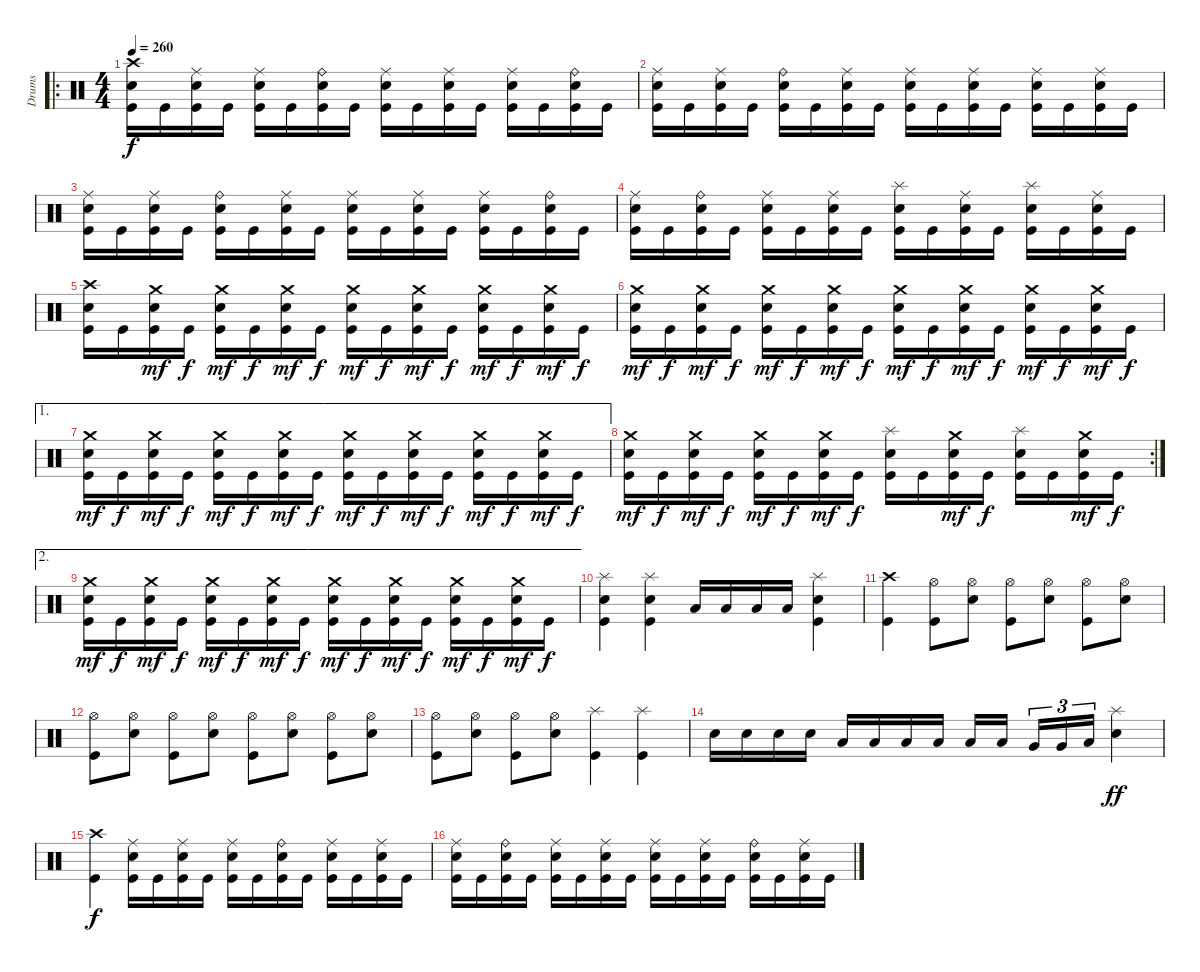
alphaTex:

\track ("Drums" "Drums") {instrument percussion}
\staff {score}
\articulation defaults
\ro
\ts (4 4)
\tempo 260
\clef neutral
\ks c
("Crash high (hit)" "Electric Snare (hit)" "Kick (hit)").16{dy f} "Kick (hit)".16 ("Ride (middle)" "Electric Snare (hit)" "Kick (hit)").16 "Kick (hit)".16 ("Ride (middle)" "Electric Snare (hit)" "Kick (hit)").16 "Kick (hit)".16 ("Ride (bell)" "Electric Snare (hit)" "Kick (hit)").16 "Kick (hit)".16 ("Ride (middle)" "Electric Snare (hit)" "Kick (hit)").16 "Kick (hit)".16 ("Ride (middle)" "Electric Snare (hit)" "Kick (hit)").16 "Kick (hit)".16 ("Ride (middle)" "Electric Snare (hit)" "Kick (hit)").16 "Kick (hit)".16 ("Ride (bell)" "Electric Snare (hit)" "Kick (hit)").16 "Kick (hit)".16 |
("Ride (middle)" "Electric Snare (hit)" "Kick (hit)").16 "Kick (hit)".16 ("Ride (middle)" "Electric Snare (hit)" "Kick (hit)").16 "Kick (hit)".16 ("Ride (bell)" "Electric Snare (hit)" "Kick (hit)").16 "Kick (hit)".16 ("Ride (middle)" "Electric Snare (hit)" "Kick (hit)").16 "Kick (hit)".16 ("Ride (middle)" "Electric Snare (hit)" "Kick (hit)").16 "Kick (hit)".16 ("Ride (middle)" "Electric Snare (hit)" "Kick (hit)").16 "Kick (hit)".16 ("Ride (middle)" "Electric Snare (hit)" "Kick (hit)").16 "Kick (hit)".16 ("Ride (middle)" "Electric Snare (hit)" "Kick (hit)").16 "Kick (hit)".16 |
("Ride (middle)" "Electric Snare (hit)" "Kick (hit)").16 "Kick (hit)".16 ("Ride (middle)" "Electric Snare (hit)" "Kick (hit)").16 "Kick (hit)".16 ("Ride (bell)" "Electric Snare (hit)" "Kick (hit)").16 "Kick (hit)".16 ("Ride (middle)" "Electric Snare (hit)" "Kick (hit)").16 "Kick (hit)".16 ("Ride (middle)" "Electric Snare (hit)" "Kick (hit)").16 "Kick (hit)".16 ("Ride (middle)" "Electric Snare (hit)" "Kick (hit)").16 "Kick (hit)".16 ("Ride (middle)" "Electric Snare (hit)" "Kick (hit)").16 "Kick (hit)".16 ("Ride (bell)" "Electric Snare (hit)" "Kick (hit)").16 "Kick (hit)".16 |
("Ride (middle)" "Electric Snare (hit)" "Kick (hit)").16 "Kick (hit)".16 ("Ride (bell)" "Electric Snare (hit)" "Kick (hit)").16 "Kick (hit)".16 ("Ride (middle)" "Electric Snare (hit)" "Kick (hit)").16 "Kick (hit)".16 ("Ride (middle)" "Electric Snare (hit)" "Kick (hit)").16 "Kick (hit)".16 ("Splash (hit)" "Electric Snare (hit)" "Kick (hit)").16 "Kick (hit)".16 ("Ride (middle)" "Electric Snare (hit)" "Kick (hit)").16 "Kick (hit)".16 ("Splash (hit)" "Electric Snare (hit)" "Kick (hit)").16 "Kick (hit)".16 ("Ride (middle)" "Electric Snare (hit)" "Kick (hit)").16 "Kick (hit)".16 |
("Crash high (hit)" "Electric Snare (hit)" "Kick (hit)").16 "Kick (hit)".16 ("Crash medium (hit)" "Electric Snare (hit)" "Kick (hit)").16{dy mf} "Kick (hit)".16{dy f} ("Crash medium (hit)" "Electric Snare (hit)" "Kick (hit)").16{dy mf} "Kick (hit)".16{dy f} ("Crash medium (hit)" "Electric Snare (hit)" "Kick (hit)").16{dy mf} "Kick (hit)".16{dy f} ("Crash medium (hit)" "Electric Snare (hit)" "Kick (hit)").16{dy mf} "Kick (hit)".16{dy f} ("Crash medium (hit)" "Electric Snare (hit)" "Kick (hit)").16{dy mf} "Kick (hit)".16{dy f} ("Crash medium (hit)" "Electric Snare (hit)" "Kick (hit)").16{dy mf} "Kick (hit)".16{dy f} ("Crash medium (hit)" "Electric Snare (hit)" "Kick (hit)").16{dy mf} "Kick (hit)".16{dy f} |
("Crash medium (hit)" "Electric Snare (hit)" "Kick (hit)").16{dy mf} "Kick (hit)".16{dy f} ("Crash medium (hit)" "Electric Snare (hit)" "Kick (hit)").16{dy mf} "Kick (hit)".16{dy f} ("Crash medium (hit)" "Electric Snare (hit)" "Kick (hit)").16{dy mf} "Kick (hit)".16{dy f} ("Crash medium (hit)" "Electric Snare (hit)" "Kick (hit)").16{dy mf} "Kick (hit)".16{dy f} ("Crash medium (hit)" "Electric Snare (hit)" "Kick (hit)").16{dy mf} "Kick (hit)".16{dy f} ("Crash medium (hit)" "Electric Snare (hit)" "Kick (hit)").16{dy mf} "Kick (hit)".16{dy f} ("Crash medium (hit)" "Electric Snare (hit)" "Kick (hit)").16{dy mf} "Kick (hit)".16{dy f} ("Crash medium (hit)" "Electric Snare (hit)" "Kick (hit)").16{dy mf} "Kick (hit)".16{dy f} |
\ae 1
("Crash medium (hit)" "Electric Snare (hit)" "Kick (hit)").16{dy mf} "Kick (hit)".16{dy f} ("Crash medium (hit)" "Electric Snare (hit)" "Kick (hit)").16{dy mf} "Kick (hit)".16{dy f} ("Crash medium (hit)" "Electric Snare (hit)" "Kick (hit)").16{dy mf} "Kick (hit)".16{dy f} ("Crash medium (hit)" "Electric Snare (hit)" "Kick (hit)").16{dy mf} "Kick (hit)".16{dy f} ("Crash medium (hit)" "Electric Snare (hit)" "Kick (hit)").16{dy mf} "Kick (hit)".16{dy f} ("Crash medium (hit)" "Electric Snare (hit)" "Kick (hit)").16{dy mf} "Kick (hit)".16{dy f} ("Crash medium (hit)" "Electric Snare (hit)" "Kick (hit)").16{dy mf} "Kick (hit)".16{dy f} ("Crash medium (hit)" "Electric Snare (hit)" "Kick (hit)").16{dy mf} "Kick (hit)".16{dy f} |
\rc 2
("Crash medium (hit)" "Electric Snare (hit)" "Kick (hit)").16{dy mf} "Kick (hit)".16{dy f} ("Crash medium (hit)" "Electric Snare (hit)" "Kick (hit)").16{dy mf} "Kick (hit)".16{dy f} ("Crash medium (hit)" "Electric Snare (hit)" "Kick (hit)").16{dy mf} "Kick (hit)".16{dy f} ("Crash medium (hit)" "Electric Snare (hit)" "Kick (hit)").16{dy mf} "Kick (hit)".16{dy f} ("Splash (hit)" "Electric Snare (hit)" "Kick (hit)").16 "Kick (hit)".16 ("Crash medium (hit)" "Electric Snare (hit)" "Kick (hit)").16{dy mf} "Kick (hit)".16{dy f} ("Splash (hit)" "Electric Snare (hit)" "Kick (hit)").16 "Kick (hit)".16 ("Crash medium (hit)" "Electric Snare (hit)" "Kick (hit)").16{dy mf} "Kick (hit)".16{dy f} |
\ae 2
("Crash medium (hit)" "Electric Snare (hit)" "Kick (hit)").16{dy mf} "Kick (hit)".16{dy f} ("Crash medium (hit)" "Electric Snare (hit)" "Kick (hit)").16{dy mf} "Kick (hit)".16{dy f} ("Crash medium (hit)" "Electric Snare (hit)" "Kick (hit)").16{dy mf} "Kick (hit)".16{dy f} ("Crash medium (hit)" "Electric Snare (hit)" "Kick (hit)").16{dy mf} "Kick (hit)".16{dy f} ("Crash medium (hit)" "Electric Snare (hit)" "Kick (hit)").16{dy mf} "Kick (hit)".16{dy f} ("Crash medium (hit)" "Electric Snare (hit)" "Kick (hit)").16{dy mf} "Kick (hit)".16{dy f} ("Crash medium (hit)" "Electric Snare (hit)" "Kick (hit)").16{dy mf} "Kick (hit)".16{dy f} ("Crash medium (hit)" "Electric Snare (hit)" "Kick (hit)").16{dy mf} "Kick (hit)".16{dy f} |
("Splash (hit)" "Electric Snare (hit)" "Kick (hit)").4 ("Splash (hit)" "Electric Snare (hit)" "Kick (hit)").4 "Low Tom (hit)".16 "Low Tom (hit)".16 "Low Tom (hit)".16 "Low Tom (hit)".16 ("Splash (hit)" "Electric Snare (hit)" "Kick (hit)").4 |
("Crash high (hit)" "Kick (hit)").4 ("Hi-Hat (open)" "Kick (hit)").8 ("Hi-Hat (open)" "Electric Snare (hit)").8 ("Hi-Hat (open)" "Kick (hit)").8 ("Hi-Hat (open)" "Electric Snare (hit)").8 ("Hi-Hat (open)" "Kick (hit)").8 ("Hi-Hat (open)" "Electric Snare (hit)").8 |
("Hi-Hat (open)" "Kick (hit)").8 ("Hi-Hat (open)" "Electric Snare (hit)").8 ("Hi-Hat (open)" "Kick (hit)").8 ("Hi-Hat (open)" "Electric Snare (hit)").8 ("Hi-Hat (open)" "Kick (hit)").8 ("Hi-Hat (open)" "Electric Snare (hit)").8 ("Hi-Hat (open)" "Kick (hit)").8 ("Hi-Hat (open)" "Electric Snare (hit)").8 |
("Hi-Hat (open)" "Kick (hit)").8 ("Hi-Hat (open)" "Electric Snare (hit)").8 ("Hi-Hat (open)" "Kick (hit)").8 ("Hi-Hat (open)" "Electric Snare (hit)").8 ("Splash (hit)" "Kick (hit)").4 ("Splash (hit)" "Kick (hit)").4 |
"Electric Snare (hit)".16 "Electric Snare (hit)".16 "Electric Snare (hit)".16 "Electric Snare (hit)".16 "Low Tom (hit)".16 "Low Tom (hit)".16 "Low Tom (hit)".16 "Low Tom (hit)".16 "Low Tom (hit)".16 "Low Tom (hit)".16 "Very Low Tom (hit)".16{tu (3 2)} "Very Low Tom (hit)".16{tu (3 2)} "Low Floor Tom (hit)".16{tu (3 2)} ("Splash (hit)" "Electric Snare (hit)").4{dy ff} |
("Crash high (hit)" "Kick (hit)").4{dy f} ("Ride (middle)" "Electric Snare (hit)" "Kick (hit)").16 "Kick (hit)".16 ("Ride (middle)" "Electric Snare (hit)" "Kick (hit)").16 "Kick (hit)".16 ("Ride (middle)" "Electric Snare (hit)" "Kick (hit)").16 "Kick (hit)".16 ("Ride (bell)" "Electric Snare (hit)" "Kick (hit)").16 "Kick (hit)".16 ("Ride (middle)" "Electric Snare (hit)" "Kick (hit)").16 "Kick (hit)".16 ("Ride (middle)" "Electric Snare (hit)" "Kick (hit)").16 "Kick (hit)".16 |
("Ride (middle)" "Electric Snare (hit)" "Kick (hit)").16 "Kick (hit)".16 ("Ride (bell)" "Electric Snare (hit)" "Kick (hit)").16 "Kick (hit)".16 ("Ride (middle)" "Electric Snare (hit)" "Kick (hit)").16 "Kick (hit)".16 ("Ride (middle)" "Electric Snare (hit)" "Kick (hit)").16 "Kick (hit)".16 ("Ride (middle)" "Electric Snare (hit)" "Kick (hit)").16 "Kick (hit)".16 ("Ride (middle)" "Electric Snare (hit)" "Kick (hit)").16 "Kick (hit)".16 ("Ride (bell)" "Electric Snare (hit)" "Kick (hit)").16 "Kick (hit)".16 ("Ride (middle)" "Electric Snare (hit)" "Kick (hit)").16 "Kick (hit)".16
